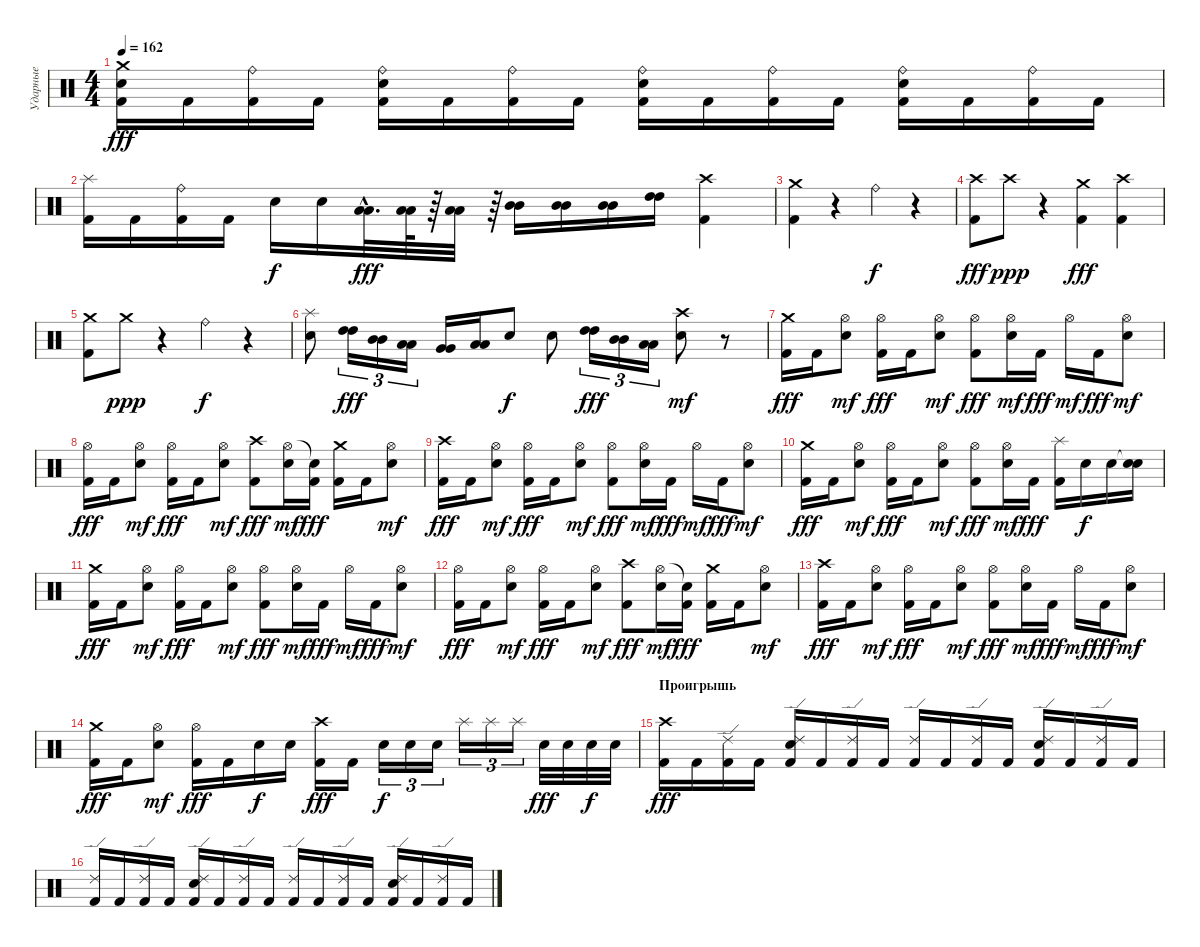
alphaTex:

\track ("Ударные" "Ударные") {instrument percussion}
\staff {score}
\articulation defaults
\ts (4 4)
\tempo 162
\clef neutral
\ks c
("Crash medium (hit)" "Electric Snare (hit)" "Kick (hit) 2").16{dy fff} "Kick (hit) 2".16 ("Ride (bell)" "Kick (hit) 2").16 "Kick (hit) 2".16 ("Ride (bell)" "Electric Snare (hit)" "Kick (hit) 2").16 "Kick (hit) 2".16 ("Ride (bell)" "Kick (hit) 2").16 "Kick (hit) 2".16 ("Ride (bell)" "Electric Snare (hit)" "Kick (hit) 2").16 "Kick (hit) 2".16 ("Ride (bell)" "Kick (hit) 2").16 "Kick (hit) 2".16 ("Ride (bell)" "Electric Snare (hit)" "Kick (hit) 2").16 "Kick (hit) 2".16 ("Ride (bell)" "Kick (hit) 2").16 "Kick (hit) 2".16 |
("Splash (hit)" "Kick (hit) 2").16 "Kick (hit) 2".16 ("Ride (bell)" "Kick (hit) 2").16 "Kick (hit) 2".16 "Electric Snare (hit)".16{dy f} "Electric Snare (hit)".16 ("Low Tom (hit)"{hac} "Low Tom (hit)"{hac}).32{d dy fff} ("Low Tom (hit)" "Low Tom (hit)").64 r.64 ("Low Tom (hit)" "Low Tom (hit)").32 r.64 ("Mid Tom (hit)" "Mid Tom (hit)").16 ("Mid Tom (hit)" "Mid Tom (hit)").16 ("Mid Tom (hit)" "Mid Tom (hit)").16 ("High Tom (hit)" "High Tom (hit)").16 ("Crash high (hit)" "Kick (hit) 2").4 |
("Crash medium (hit)" "Kick (hit) 2").4 r.4 "Ride (bell)".4{dy f} r.4 |
("Crash high (hit)" "Kick (hit) 2").8{dy fff} "Crash high (hit)".8{dy ppp} r.4 ("Crash medium (hit)" "Kick (hit) 2").4{dy fff} ("Crash high (hit)" "Kick (hit) 2").4 |
("Crash medium (hit)" "Kick (hit) 2").8 "Crash medium (hit)".8{dy ppp} r.4 "Ride (bell)".4{dy f} r.4 |
("Splash (hit)" "Electric Snare (hit)").8 ("High Tom (hit)" "High Tom (hit)").16{tu (3 2) dy fff} ("Mid Tom (hit)" "Mid Tom (hit)").16{tu (3 2)} ("Low Tom (hit)" "Low Tom (hit)").16{tu (3 2)} ("Very Low Tom (hit)" "Very Low Tom (hit)").16 ("Low Floor Tom (hit)" "Low Floor Tom (hit)").16 "Electric Snare (hit)".8{dy f} "Electric Snare (hit)".8 ("High Tom (hit)" "High Tom (hit)").16{tu (3 2) dy fff} ("Mid Tom (hit)" "Mid Tom (hit)").16{tu (3 2)} ("Low Tom (hit)" "Low Tom (hit)").16{tu (3 2)} ("Crash high (hit)" "Electric Snare (hit)").8{dy mf} r.8 |
("Crash medium (hit)" "Kick (hit) 2").16{dy fff} "Kick (hit) 2".16 ("Hi-Hat (open)" "Electric Snare (hit)").8{dy mf} ("Hi-Hat (open)" "Kick (hit) 2").16{dy fff} "Kick (hit) 2".16 ("Hi-Hat (open)" "Electric Snare (hit)").8{dy mf} ("Hi-Hat (open)" "Kick (hit) 2").8{dy fff} ("Hi-Hat (open)" "Electric Snare (hit)").16{dy mf} "Kick (hit) 2".16{dy fff} "Hi-Hat (open)".16{dy mf} "Kick (hit) 2".16{dy fff} ("Hi-Hat (open)" "Electric Snare (hit)").8{dy mf} |
("Hi-Hat (open)" "Kick (hit) 2").16{dy fff} "Kick (hit) 2".16 ("Hi-Hat (open)" "Electric Snare (hit)").8{dy mf} ("Hi-Hat (open)" "Kick (hit) 2").16{dy fff} "Kick (hit) 2".16 ("Hi-Hat (open)" "Electric Snare (hit)").8{dy mf} ("Crash high (hit)" "Kick (hit) 2").8{dy fff} ("Hi-Hat (open)" "Electric Snare (hit)").16{dy mf} ("Snare (hit)"{t} "Kick (hit) 2").16{dy fff} ("Crash medium (hit)" "Kick (hit) 2").16 "Kick (hit) 2".16 ("Hi-Hat (open)" "Electric Snare (hit)").8{dy mf} |
("Crash high (hit)" "Kick (hit) 2").16{dy fff} "Kick (hit) 2".16 ("Hi-Hat (open)" "Electric Snare (hit)").8{dy mf} ("Hi-Hat (open)" "Kick (hit) 2").16{dy fff} "Kick (hit) 2".16 ("Hi-Hat (open)" "Electric Snare (hit)").8{dy mf} ("Hi-Hat (open)" "Kick (hit) 2").8{dy fff} ("Hi-Hat (open)" "Electric Snare (hit)").16{dy mf} "Kick (hit) 2".16{dy fff} "Hi-Hat (open)".16{dy mf} "Kick (hit) 2".16{dy fff} ("Hi-Hat (open)" "Electric Snare (hit)").8{dy mf} |
("Crash medium (hit)" "Kick (hit) 2").16{dy fff} "Kick (hit) 2".16 ("Hi-Hat (open)" "Electric Snare (hit)").8{dy mf} ("Hi-Hat (open)" "Kick (hit) 2").16{dy fff} "Kick (hit) 2".16 ("Hi-Hat (open)" "Electric Snare (hit)").8{dy mf} ("Hi-Hat (open)" "Kick (hit) 2").8{dy fff} ("Hi-Hat (open)" "Electric Snare (hit)").16{dy mf} "Kick (hit) 2".16{dy fff} ("Splash (hit)" "Kick (hit) 2").16 "Electric Snare (hit)".16{dy f} "Electric Snare (hit)".16 ("Snare (hit)"{t} "Electric Snare (hit)").16 |
("Crash medium (hit)" "Kick (hit) 2").16{dy fff} "Kick (hit) 2".16 ("Hi-Hat (open)" "Electric Snare (hit)").8{dy mf} ("Hi-Hat (open)" "Kick (hit) 2").16{dy fff} "Kick (hit) 2".16 ("Hi-Hat (open)" "Electric Snare (hit)").8{dy mf} ("Hi-Hat (open)" "Kick (hit) 2").8{dy fff} ("Hi-Hat (open)" "Electric Snare (hit)").16{dy mf} "Kick (hit) 2".16{dy fff} "Hi-Hat (open)".16{dy mf} "Kick (hit) 2".16{dy fff} ("Hi-Hat (open)" "Electric Snare (hit)").8{dy mf} |
("Hi-Hat (open)" "Kick (hit) 2").16{dy fff} "Kick (hit) 2".16 ("Hi-Hat (open)" "Electric Snare (hit)").8{dy mf} ("Hi-Hat (open)" "Kick (hit) 2").16{dy fff} "Kick (hit) 2".16 ("Hi-Hat (open)" "Electric Snare (hit)").8{dy mf} ("Crash high (hit)" "Kick (hit) 2").8{dy fff} ("Hi-Hat (open)" "Electric Snare (hit)").16{dy mf} ("Snare (hit)"{t} "Kick (hit) 2").16{dy fff} ("Crash medium (hit)" "Kick (hit) 2").16 "Kick (hit) 2".16 ("Hi-Hat (open)" "Electric Snare (hit)").8{dy mf} |
("Crash high (hit)" "Kick (hit) 2").16{dy fff} "Kick (hit) 2".16 ("Hi-Hat (open)" "Electric Snare (hit)").8{dy mf} ("Hi-Hat (open)" "Kick (hit) 2").16{dy fff} "Kick (hit) 2".16 ("Hi-Hat (open)" "Electric Snare (hit)").8{dy mf} ("Hi-Hat (open)" "Kick (hit) 2").8{dy fff} ("Hi-Hat (open)" "Electric Snare (hit)").16{dy mf} "Kick (hit) 2".16{dy fff} "Hi-Hat (open)".16{dy mf} "Kick (hit) 2".16{dy fff} ("Hi-Hat (open)" "Electric Snare (hit)").8{dy mf} |
("Crash medium (hit)" "Kick (hit) 2").16{dy fff} "Kick (hit) 2".16 ("Hi-Hat (open)" "Electric Snare (hit)").8{dy mf} ("Hi-Hat (open)" "Kick (hit) 2").16{dy fff} "Kick (hit) 2".16 "Electric Snare (hit)".16{dy f} "Electric Snare (hit)".16 ("Crash high (hit)" "Kick (hit) 2").16{dy fff} "Kick (hit) 2".16 "Electric Snare (hit)".16{tu (3 2) dy f} "Electric Snare (hit)".16{tu (3 2)} "Electric Snare (hit)".16{tu (3 2)} "Splash (hit)".16{tu (3 2)} "Splash (hit)".16{tu (3 2)} "Splash (hit)".16{tu (3 2)} "Electric Snare (hit)".32{dy fff} "Electric Snare (hit)".32 "Electric Snare (hit)".32{dy f} "Electric Snare (hit)".32 |
\section ("" "Проигрышь")
("Crash high (hit)" "Kick (hit) 2").16{dy fff} "Kick (hit) 2".16 ("Ride (edge) 2" "Kick (hit) 2").16 "Kick (hit) 2".16 ("Ride (edge) 2" "Electric Snare (hit)" "Kick (hit) 2").16 "Kick (hit) 2".16 ("Ride (edge) 2" "Kick (hit) 2").16 "Kick (hit) 2".16 ("Ride (edge) 2" "Kick (hit) 2").16 "Kick (hit) 2".16 ("Ride (edge) 2" "Kick (hit) 2").16 "Kick (hit) 2".16 ("Ride (edge) 2" "Electric Snare (hit)" "Kick (hit) 2").16 "Kick (hit) 2".16 ("Ride (edge) 2" "Kick (hit) 2").16 "Kick (hit) 2".16 |
("Ride (edge) 2" "Kick (hit) 2").16 "Kick (hit) 2".16 ("Ride (edge) 2" "Kick (hit) 2").16 "Kick (hit) 2".16 ("Ride (edge) 2" "Electric Snare (hit)" "Kick (hit) 2").16 "Kick (hit) 2".16 ("Ride (edge) 2" "Kick (hit) 2").16 "Kick (hit) 2".16 ("Ride (edge) 2" "Kick (hit) 2").16 "Kick (hit) 2".16 ("Ride (edge) 2" "Kick (hit) 2").16 "Kick (hit) 2".16 ("Ride (edge) 2" "Electric Snare (hit)" "Kick (hit) 2").16 "Kick (hit) 2".16 ("Ride (edge) 2" "Kick (hit) 2").16 "Kick (hit) 2".16
